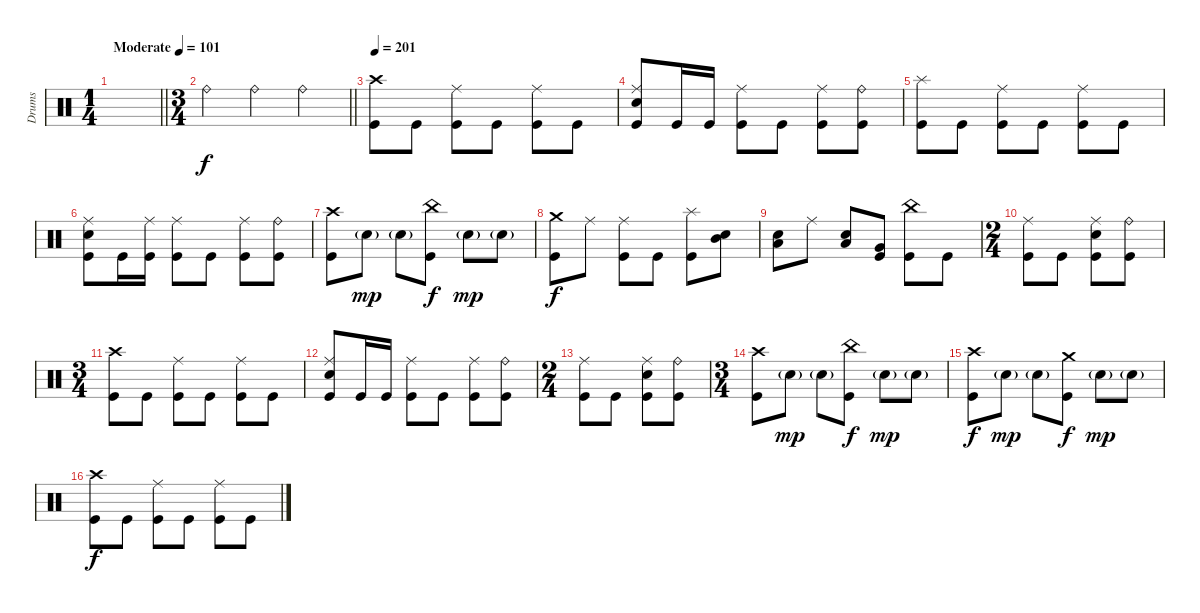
\track ("Drums" "Drums") {instrument percussion}
\staff
\articulation defaults
\ts (1 4)
\tempo (101 "Moderate")
\clef neutral
\barLineRight lightlight
\ks c
|
\ts (3 4)
\barLineRight lightlight "Ride (bell)".4 "Ride (bell)".4 "Ride (bell)".4
|
\tempo 201
("Crash high (hit)" "Kick (hit)").8 "Kick (hit)".8 ("Ride (middle)" "Kick (hit)").8 "Kick (hit)".8 ("Ride (middle)" "Kick (hit)").8 "Kick (hit)".8 |
("Ride (middle)" "Electric Snare (hit)" "Kick (hit)").8 "Kick (hit)".16 "Kick (hit)".16 ("Ride (middle)" "Kick (hit)").8 "Kick (hit)".8 ("Ride (middle)" "Kick (hit)").8 ("Ride (bell)" "Kick (hit)").8 |
("Splash (hit)" "Kick (hit)").8 "Kick (hit)".8 ("Ride (middle)" "Kick (hit)").8 "Kick (hit)".8 ("Ride (middle)" "Kick (hit)").8 "Kick (hit)".8 |
("Ride (middle)" "Electric Snare (hit)" "Kick (hit)").8 "Kick (hit)".16 ("Ride (middle)" "Kick (hit)").16 ("Ride (middle)" "Kick (hit)").8 "Kick (hit)".8 ("Ride (middle)" "Kick (hit)").8 ("Ride (bell)" "Kick (hit)").8 |
("Crash high (hit)" "Kick (hit)").8 "Electric Snare (hit)"{g}.8{dy mp} "Electric Snare (hit)"{g}.8 ("China (hit)" "Kick (hit)").8{dy f} "Electric Snare (hit)"{g}.8{dy mp} "Electric Snare (hit)"{g}.8 |
("Crash medium (hit)" "Kick (hit)").8{dy f} "Ride (middle)".8 ("Ride (middle)" "Kick (hit)").8 "Kick (hit)".8 ("Splash (hit)" "Kick (hit)").8 ("Mid Tom (hit)" "Electric Snare (hit)").8 |
("Low Tom (hit)" "Electric Snare (hit)").8 "Ride (middle)".8 ("Low Tom (hit)" "Electric Snare (hit)").8 ("Very Low Tom (hit)" "Kick (hit)").8 ("China (hit)" "Kick (hit)").8 "Kick (hit)".8 |
\ts (2 4)
("Ride (middle)" "Kick (hit)").8 "Kick (hit)".8 ("Ride (middle)" "Electric Snare (hit)" "Kick (hit)").8 ("Ride (bell)" "Kick (hit)").8 |
\ts (3 4)
("Crash high (hit)" "Kick (hit)").8 "Kick (hit)".8 ("Ride (middle)" "Kick (hit)").8 "Kick (hit)".8 ("Ride (middle)" "Kick (hit)").8 "Kick (hit)".8 |
("Ride (middle)" "Electric Snare (hit)" "Kick (hit)").8 "Kick (hit)".16 "Kick (hit)".16 ("Ride (middle)" "Kick (hit)").8 "Kick (hit)".8 ("Ride (middle)" "Kick (hit)").8 ("Ride (bell)" "Kick (hit)").8 |
\ts (2 4)
("Ride (middle)" "Kick (hit)").8 "Kick (hit)".8 ("Ride (middle)" "Electric Snare (hit)" "Kick (hit)").8 ("Ride (bell)" "Kick (hit)").8 |
\ts (3 4)
("Crash high (hit)" "Kick (hit)").8 "Electric Snare (hit)"{g}.8{dy mp} "Electric Snare (hit)"{g}.8 ("China (hit)" "Kick (hit)").8{dy f} "Electric Snare (hit)"{g}.8{dy mp} "Electric Snare (hit)"{g}.8 |
("Crash high (hit)" "Kick (hit)").8{dy f} "Electric Snare (hit)"{g}.8{dy mp} "Electric Snare (hit)"{g}.8 ("Crash medium (hit)" "Kick (hit)").8{dy f} "Electric Snare (hit)"{g}.8{dy mp} "Electric Snare (hit)"{g}.8 |
("Crash high (hit)" "Kick (hit)").8{dy f} "Kick (hit)".8 ("Ride (middle)" "Kick (hit)").8 "Kick (hit)".8 ("Ride (middle)" "Kick (hit)").8 "Kick (hit)".8
